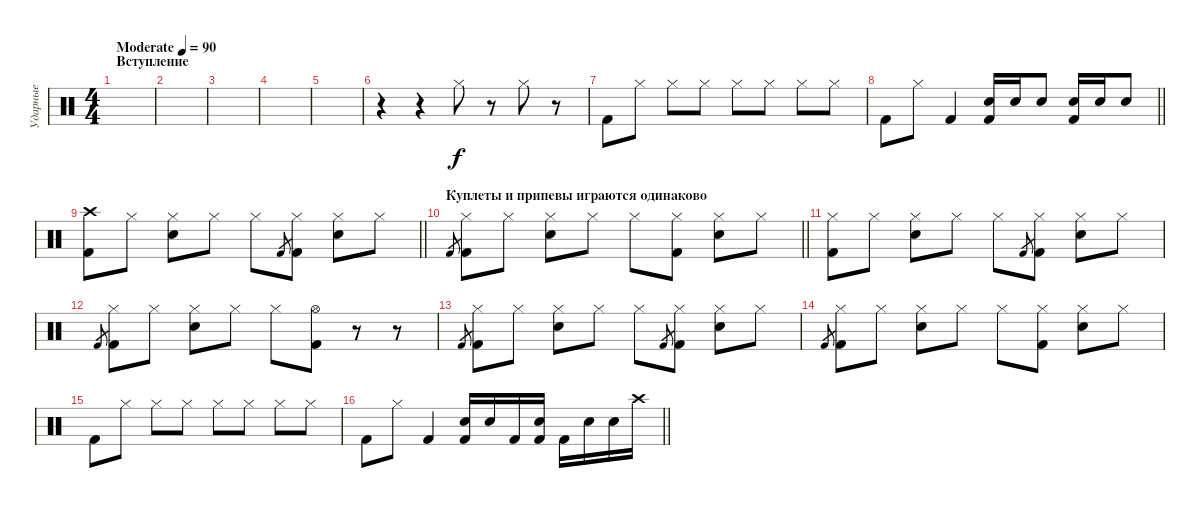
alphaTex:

\track ("Ударные" "Ударные") {instrument percussion}
\staff {score}
\articulation defaults
\ts (4 4)
\section ("" "Вступление")
\tempo (90 "Moderate")
\clef neutral
\ks c
|
|
|
|
|
r.4 r.4 "Hi-Hat (closed)".8 r.8 "Hi-Hat (closed)".8 r.8 |
"Kick (hit) 2".8 "Hi-Hat (closed)".8 "Hi-Hat (closed)".8 "Hi-Hat (closed)".8 "Hi-Hat (closed)".8 "Hi-Hat (closed)".8 "Hi-Hat (closed)".8 "Hi-Hat (closed)".8 |
\barLineRight lightlight "Kick (hit) 2".8 "Hi-Hat (closed)".8 "Kick (hit) 2".4
("Snare (hit) 2" "Kick (hit) 2").16 "Snare (hit) 2".16 "Snare (hit) 2".8 ("Snare (hit) 2" "Kick (hit) 2").16 "Snare (hit) 2".16 "Snare (hit) 2".8 |
\section ("" "")
\barLineRight lightlight
("Crash high (hit)" "Kick (hit) 2").8 "Hi-Hat (closed)".8 ("Hi-Hat (closed)" "Snare (hit) 2").8 "Hi-Hat (closed)".8 "Hi-Hat (closed)".8 "Kick (hit) 2".8{gr} ("Hi-Hat (closed)" "Kick (hit) 2").8 ("Hi-Hat (closed)" "Snare (hit) 2").8 "Hi-Hat (closed)".8 |
\section ("" "Куплеты и припевы играются одинаково")
\barLineRight lightlight "Kick (hit) 2".8{gr}
("Hi-Hat (closed)" "Kick (hit) 2").8 "Hi-Hat (closed)".8 ("Hi-Hat (closed)" "Snare (hit) 2").8 "Hi-Hat (closed)".8 "Hi-Hat (closed)".8 ("Hi-Hat (closed)" "Kick (hit) 2").8 ("Hi-Hat (closed)" "Snare (hit) 2").8 "Hi-Hat (closed)".8 |
\section ("" "")
("Hi-Hat (closed)" "Kick (hit) 2").8 "Hi-Hat (closed)".8 ("Hi-Hat (closed)" "Snare (hit) 2").8 "Hi-Hat (closed)".8 "Hi-Hat (closed)".8 "Kick (hit) 2".8{gr} ("Hi-Hat (closed)" "Kick (hit) 2").8 ("Hi-Hat (closed)" "Snare (hit) 2").8 "Hi-Hat (closed)".8 |
"Kick (hit) 2".8{gr} ("Hi-Hat (closed)" "Kick (hit) 2").8 "Hi-Hat (closed)".8 ("Hi-Hat (closed)" "Snare (hit) 2").8 "Hi-Hat (closed)".8 "Hi-Hat (closed)".8 ("Hi-Hat (open)" "Kick (hit) 2").8 r.8 r.8 |
"Kick (hit) 2".8{gr} ("Hi-Hat (closed)" "Kick (hit) 2").8 "Hi-Hat (closed)".8 ("Hi-Hat (closed)" "Snare (hit) 2").8 "Hi-Hat (closed)".8 "Hi-Hat (closed)".8 "Kick (hit) 2".8{gr} ("Hi-Hat (closed)" "Kick (hit) 2").8 ("Hi-Hat (closed)" "Snare (hit) 2").8 "Hi-Hat (closed)".8 |
"Kick (hit) 2".8{gr} ("Hi-Hat (closed)" "Kick (hit) 2").8 "Hi-Hat (closed)".8 ("Hi-Hat (closed)" "Snare (hit) 2").8 "Hi-Hat (closed)".8 "Hi-Hat (closed)".8 ("Hi-Hat (closed)" "Kick (hit) 2").8 ("Hi-Hat (closed)" "Snare (hit) 2").8 "Hi-Hat (closed)".8 |
"Kick (hit) 2".8 "Hi-Hat (closed)".8 "Hi-Hat (closed)".8 "Hi-Hat (closed)".8 "Hi-Hat (closed)".8 "Hi-Hat (closed)".8 "Hi-Hat (closed)".8 "Hi-Hat (closed)".8 |
\barLineRight lightlight "Kick (hit) 2".8 "Hi-Hat (closed)".8 "Kick (hit) 2".4
("Snare (hit) 2" "Kick (hit) 2").16 "Snare (hit) 2".16 "Kick (hit) 2".16 ("Snare (hit) 2" "Kick (hit) 2").16 "Kick (hit) 2".16 "Snare (hit) 2".16 "Snare (hit) 2".16 "Crash high (hit)".16
